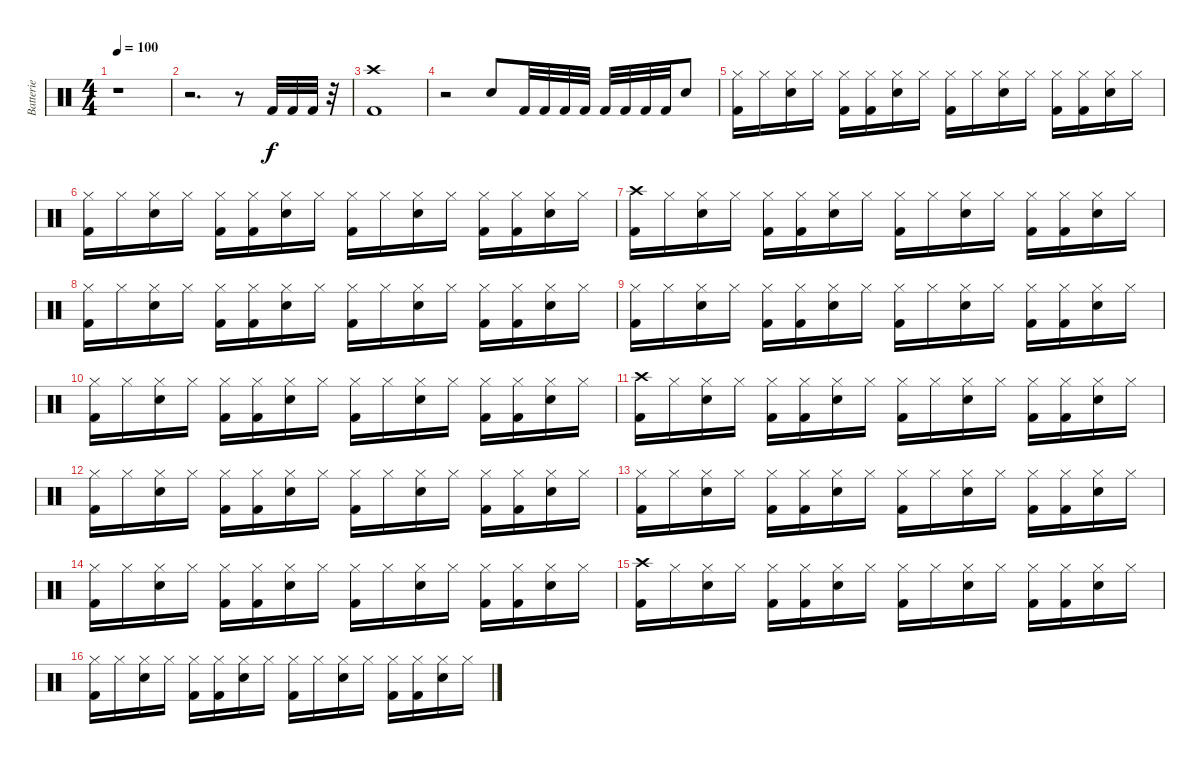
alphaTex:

\track ("Batterie" "Batterie") {instrument percussion}
\staff {score}
\articulation defaults
\ts (4 4)
\tempo 100
\clef neutral
\ks c
r.1{dy f} |
r.2{d} r.8 "Kick (hit) 2".32 "Kick (hit) 2".32 "Kick (hit) 2".32 r.32 |
("Crash high (hit)" "Kick (hit) 2").1 |
r.2 "Snare (hit) 2".8 "Kick (hit) 2".32 "Kick (hit) 2".32 "Kick (hit) 2".32 "Kick (hit) 2".32 "Kick (hit) 2".32 "Kick (hit) 2".32 "Kick (hit) 2".32 "Kick (hit) 2".32 "Snare (hit) 2".8 |
("Hi-Hat (closed)" "Kick (hit) 2").16 "Hi-Hat (closed)".16 ("Hi-Hat (closed)" "Snare (hit) 2").16 "Hi-Hat (closed)".16 ("Hi-Hat (closed)" "Kick (hit) 2").16 ("Hi-Hat (closed)" "Kick (hit) 2").16 ("Hi-Hat (closed)" "Snare (hit) 2").16 "Hi-Hat (closed)".16 ("Hi-Hat (closed)" "Kick (hit) 2").16 "Hi-Hat (closed)".16 ("Hi-Hat (closed)" "Snare (hit) 2").16 "Hi-Hat (closed)".16 ("Hi-Hat (closed)" "Kick (hit) 2").16 ("Hi-Hat (closed)" "Kick (hit) 2").16 ("Hi-Hat (closed)" "Snare (hit) 2").16 "Hi-Hat (closed)".16 |
("Hi-Hat (closed)" "Kick (hit) 2").16 "Hi-Hat (closed)".16 ("Hi-Hat (closed)" "Snare (hit) 2").16 "Hi-Hat (closed)".16 ("Hi-Hat (closed)" "Kick (hit) 2").16 ("Hi-Hat (closed)" "Kick (hit) 2").16 ("Hi-Hat (closed)" "Snare (hit) 2").16 "Hi-Hat (closed)".16 ("Hi-Hat (closed)" "Kick (hit) 2").16 "Hi-Hat (closed)".16 ("Hi-Hat (closed)" "Snare (hit) 2").16 "Hi-Hat (closed)".16 ("Hi-Hat (closed)" "Kick (hit) 2").16 ("Hi-Hat (closed)" "Kick (hit) 2").16 ("Hi-Hat (closed)" "Snare (hit) 2").16 "Hi-Hat (closed)".16 |
("Crash high (hit)" "Kick (hit) 2").16 "Hi-Hat (closed)".16 ("Hi-Hat (closed)" "Snare (hit) 2").16 "Hi-Hat (closed)".16 ("Hi-Hat (closed)" "Kick (hit) 2").16 ("Hi-Hat (closed)" "Kick (hit) 2").16 ("Hi-Hat (closed)" "Snare (hit) 2").16 "Hi-Hat (closed)".16 ("Hi-Hat (closed)" "Kick (hit) 2").16 "Hi-Hat (closed)".16 ("Hi-Hat (closed)" "Snare (hit) 2").16 "Hi-Hat (closed)".16 ("Hi-Hat (closed)" "Kick (hit) 2").16 ("Hi-Hat (closed)" "Kick (hit) 2").16 ("Hi-Hat (closed)" "Snare (hit) 2").16 "Hi-Hat (closed)".16 |
("Hi-Hat (closed)" "Kick (hit) 2").16 "Hi-Hat (closed)".16 ("Hi-Hat (closed)" "Snare (hit) 2").16 "Hi-Hat (closed)".16 ("Hi-Hat (closed)" "Kick (hit) 2").16 ("Hi-Hat (closed)" "Kick (hit) 2").16 ("Hi-Hat (closed)" "Snare (hit) 2").16 "Hi-Hat (closed)".16 ("Hi-Hat (closed)" "Kick (hit) 2").16 "Hi-Hat (closed)".16 ("Hi-Hat (closed)" "Snare (hit) 2").16 "Hi-Hat (closed)".16 ("Hi-Hat (closed)" "Kick (hit) 2").16 ("Hi-Hat (closed)" "Kick (hit) 2").16 ("Hi-Hat (closed)" "Snare (hit) 2").16 "Hi-Hat (closed)".16 |
("Hi-Hat (closed)" "Kick (hit) 2").16 "Hi-Hat (closed)".16 ("Hi-Hat (closed)" "Snare (hit) 2").16 "Hi-Hat (closed)".16 ("Hi-Hat (closed)" "Kick (hit) 2").16 ("Hi-Hat (closed)" "Kick (hit) 2").16 ("Hi-Hat (closed)" "Snare (hit) 2").16 "Hi-Hat (closed)".16 ("Hi-Hat (closed)" "Kick (hit) 2").16 "Hi-Hat (closed)".16 ("Hi-Hat (closed)" "Snare (hit) 2").16 "Hi-Hat (closed)".16 ("Hi-Hat (closed)" "Kick (hit) 2").16 ("Hi-Hat (closed)" "Kick (hit) 2").16 ("Hi-Hat (closed)" "Snare (hit) 2").16 "Hi-Hat (closed)".16 |
("Hi-Hat (closed)" "Kick (hit) 2").16 "Hi-Hat (closed)".16 ("Hi-Hat (closed)" "Snare (hit) 2").16 "Hi-Hat (closed)".16 ("Hi-Hat (closed)" "Kick (hit) 2").16 ("Hi-Hat (closed)" "Kick (hit) 2").16 ("Hi-Hat (closed)" "Snare (hit) 2").16 "Hi-Hat (closed)".16 ("Hi-Hat (closed)" "Kick (hit) 2").16 "Hi-Hat (closed)".16 ("Hi-Hat (closed)" "Snare (hit) 2").16 "Hi-Hat (closed)".16 ("Hi-Hat (closed)" "Kick (hit) 2").16 ("Hi-Hat (closed)" "Kick (hit) 2").16 ("Hi-Hat (closed)" "Snare (hit) 2").16 "Hi-Hat (closed)".16 |
("Crash high (hit)" "Kick (hit) 2").16 "Hi-Hat (closed)".16 ("Hi-Hat (closed)" "Snare (hit) 2").16 "Hi-Hat (closed)".16 ("Hi-Hat (closed)" "Kick (hit) 2").16 ("Hi-Hat (closed)" "Kick (hit) 2").16 ("Hi-Hat (closed)" "Snare (hit) 2").16 "Hi-Hat (closed)".16 ("Hi-Hat (closed)" "Kick (hit) 2").16 "Hi-Hat (closed)".16 ("Hi-Hat (closed)" "Snare (hit) 2").16 "Hi-Hat (closed)".16 ("Hi-Hat (closed)" "Kick (hit) 2").16 ("Hi-Hat (closed)" "Kick (hit) 2").16 ("Hi-Hat (closed)" "Snare (hit) 2").16 "Hi-Hat (closed)".16 |
("Hi-Hat (closed)" "Kick (hit) 2").16 "Hi-Hat (closed)".16 ("Hi-Hat (closed)" "Snare (hit) 2").16 "Hi-Hat (closed)".16 ("Hi-Hat (closed)" "Kick (hit) 2").16 ("Hi-Hat (closed)" "Kick (hit) 2").16 ("Hi-Hat (closed)" "Snare (hit) 2").16 "Hi-Hat (closed)".16 ("Hi-Hat (closed)" "Kick (hit) 2").16 "Hi-Hat (closed)".16 ("Hi-Hat (closed)" "Snare (hit) 2").16 "Hi-Hat (closed)".16 ("Hi-Hat (closed)" "Kick (hit) 2").16 ("Hi-Hat (closed)" "Kick (hit) 2").16 ("Hi-Hat (closed)" "Snare (hit) 2").16 "Hi-Hat (closed)".16 |
("Hi-Hat (closed)" "Kick (hit) 2").16 "Hi-Hat (closed)".16 ("Hi-Hat (closed)" "Snare (hit) 2").16 "Hi-Hat (closed)".16 ("Hi-Hat (closed)" "Kick (hit) 2").16 ("Hi-Hat (closed)" "Kick (hit) 2").16 ("Hi-Hat (closed)" "Snare (hit) 2").16 "Hi-Hat (closed)".16 ("Hi-Hat (closed)" "Kick (hit) 2").16 "Hi-Hat (closed)".16 ("Hi-Hat (closed)" "Snare (hit) 2").16 "Hi-Hat (closed)".16 ("Hi-Hat (closed)" "Kick (hit) 2").16 ("Hi-Hat (closed)" "Kick (hit) 2").16 ("Hi-Hat (closed)" "Snare (hit) 2").16 "Hi-Hat (closed)".16 |
("Hi-Hat (closed)" "Kick (hit) 2").16 "Hi-Hat (closed)".16 ("Hi-Hat (closed)" "Snare (hit) 2").16 "Hi-Hat (closed)".16 ("Hi-Hat (closed)" "Kick (hit) 2").16 ("Hi-Hat (closed)" "Kick (hit) 2").16 ("Hi-Hat (closed)" "Snare (hit) 2").16 "Hi-Hat (closed)".16 ("Hi-Hat (closed)" "Kick (hit) 2").16 "Hi-Hat (closed)".16 ("Hi-Hat (closed)" "Snare (hit) 2").16 "Hi-Hat (closed)".16 ("Hi-Hat (closed)" "Kick (hit) 2").16 ("Hi-Hat (closed)" "Kick (hit) 2").16 ("Hi-Hat (closed)" "Snare (hit) 2").16 "Hi-Hat (closed)".16 |
("Crash high (hit)" "Kick (hit) 2").16 "Hi-Hat (closed)".16 ("Hi-Hat (closed)" "Snare (hit) 2").16 "Hi-Hat (closed)".16 ("Hi-Hat (closed)" "Kick (hit) 2").16 ("Hi-Hat (closed)" "Kick (hit) 2").16 ("Hi-Hat (closed)" "Snare (hit) 2").16 "Hi-Hat (closed)".16 ("Hi-Hat (closed)" "Kick (hit) 2").16 "Hi-Hat (closed)".16 ("Hi-Hat (closed)" "Snare (hit) 2").16 "Hi-Hat (closed)".16 ("Hi-Hat (closed)" "Kick (hit) 2").16 ("Hi-Hat (closed)" "Kick (hit) 2").16 ("Hi-Hat (closed)" "Snare (hit) 2").16 "Hi-Hat (closed)".16 |
("Hi-Hat (closed)" "Kick (hit) 2").16 "Hi-Hat (closed)".16 ("Hi-Hat (closed)" "Snare (hit) 2").16 "Hi-Hat (closed)".16 ("Hi-Hat (closed)" "Kick (hit) 2").16 ("Hi-Hat (closed)" "Kick (hit) 2").16 ("Hi-Hat (closed)" "Snare (hit) 2").16 "Hi-Hat (closed)".16 ("Hi-Hat (closed)" "Kick (hit) 2").16 "Hi-Hat (closed)".16 ("Hi-Hat (closed)" "Snare (hit) 2").16 "Hi-Hat (closed)".16 ("Hi-Hat (closed)" "Kick (hit) 2").16 ("Hi-Hat (closed)" "Kick (hit) 2").16 ("Hi-Hat (closed)" "Snare (hit) 2").16 "Hi-Hat (closed)".16
